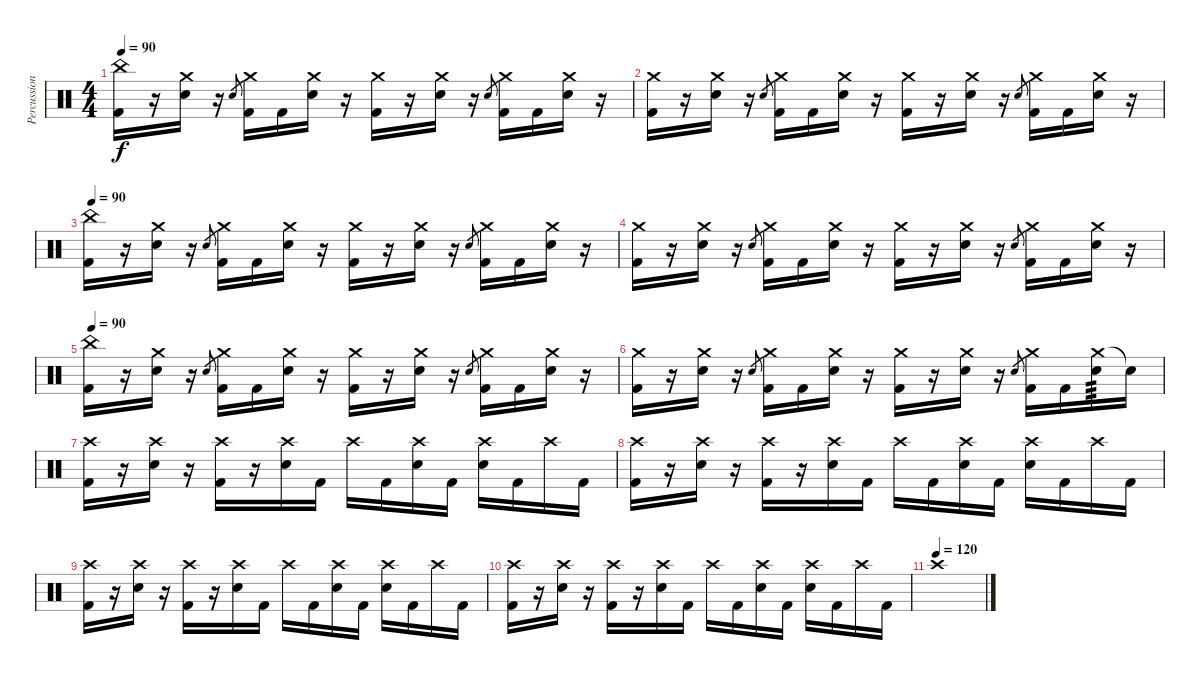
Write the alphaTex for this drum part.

\track ("Percussioni" "Percussion") {instrument percussion}
\staff {score}
\articulation defaults
\ts (4 4)
\tempo 90
\clef neutral
\ks c
("China (hit)" "Kick (hit) 2").16{dy f} r.16 ("Crash medium (hit)" "Snare (hit) 2").16 r.16 "Snare (hit) 2".8{gr} ("Crash medium (hit)" "Kick (hit) 2").16 "Kick (hit) 2".16 ("Crash medium (hit)" "Snare (hit) 2").16 r.16 ("Crash medium (hit)" "Kick (hit) 2").16 r.16 ("Crash medium (hit)" "Snare (hit) 2").16 r.16 "Snare (hit) 2".8{gr} ("Crash medium (hit)" "Kick (hit) 2").16 "Kick (hit) 2".16 ("Crash medium (hit)" "Snare (hit) 2").16 r.16 |
("Crash medium (hit)" "Kick (hit) 2").16 r.16 ("Crash medium (hit)" "Snare (hit) 2").16 r.16 "Snare (hit) 2".8{gr} ("Crash medium (hit)" "Kick (hit) 2").16 "Kick (hit) 2".16 ("Crash medium (hit)" "Snare (hit) 2").16 r.16 ("Crash medium (hit)" "Kick (hit) 2").16 r.16 ("Crash medium (hit)" "Snare (hit) 2").16 r.16 "Snare (hit) 2".8{gr} ("Crash medium (hit)" "Kick (hit) 2").16 "Kick (hit) 2".16 ("Crash medium (hit)" "Snare (hit) 2").16 r.16 |
\tempo 90
("China (hit)" "Kick (hit) 2").16 r.16 ("Crash medium (hit)" "Snare (hit) 2").16 r.16 "Snare (hit) 2".8{gr} ("Crash medium (hit)" "Kick (hit) 2").16 "Kick (hit) 2".16 ("Crash medium (hit)" "Snare (hit) 2").16 r.16 ("Crash medium (hit)" "Kick (hit) 2").16 r.16 ("Crash medium (hit)" "Snare (hit) 2").16 r.16 "Snare (hit) 2".8{gr} ("Crash medium (hit)" "Kick (hit) 2").16 "Kick (hit) 2".16 ("Crash medium (hit)" "Snare (hit) 2").16 r.16 |
("Crash medium (hit)" "Kick (hit) 2").16 r.16 ("Crash medium (hit)" "Snare (hit) 2").16 r.16 "Snare (hit) 2".8{gr} ("Crash medium (hit)" "Kick (hit) 2").16 "Kick (hit) 2".16 ("Crash medium (hit)" "Snare (hit) 2").16 r.16 ("Crash medium (hit)" "Kick (hit) 2").16 r.16 ("Crash medium (hit)" "Snare (hit) 2").16 r.16 "Snare (hit) 2".8{gr} ("Crash medium (hit)" "Kick (hit) 2").16 "Kick (hit) 2".16 ("Crash medium (hit)" "Snare (hit) 2").16 r.16 |
\tempo 90
("China (hit)" "Kick (hit) 2").16 r.16 ("Crash medium (hit)" "Snare (hit) 2").16 r.16 "Snare (hit) 2".8{gr} ("Crash medium (hit)" "Kick (hit) 2").16 "Kick (hit) 2".16 ("Crash medium (hit)" "Snare (hit) 2").16 r.16 ("Crash medium (hit)" "Kick (hit) 2").16 r.16 ("Crash medium (hit)" "Snare (hit) 2").16 r.16 "Snare (hit) 2".8{gr} ("Crash medium (hit)" "Kick (hit) 2").16 "Kick (hit) 2".16 ("Crash medium (hit)" "Snare (hit) 2").16 r.16 |
("Crash medium (hit)" "Kick (hit) 2").16 r.16 ("Crash medium (hit)" "Snare (hit) 2").16 r.16 "Snare (hit) 2".8{gr} ("Crash medium (hit)" "Kick (hit) 2").16 "Kick (hit) 2".16 ("Crash medium (hit)" "Snare (hit) 2").16 r.16 ("Crash medium (hit)" "Kick (hit) 2").16 r.16 ("Crash medium (hit)" "Snare (hit) 2").16 r.16 "Snare (hit) 2".8{gr} ("Crash medium (hit)" "Kick (hit) 2").16 "Kick (hit) 2".16 ("Crash medium (hit)" "Snare (hit) 2").16{tp 3} "Snare (hit)"{t}.16 |
("Crash high (hit)" "Kick (hit) 2").16 r.16 ("Crash high (hit)" "Snare (hit) 2").16 r.16 ("Crash high (hit)" "Kick (hit) 2").16 r.16 ("Crash high (hit)" "Snare (hit) 2").16 "Kick (hit) 2".16 "Crash high (hit)".16 "Kick (hit) 2".16 ("Crash high (hit)" "Snare (hit) 2").16 "Kick (hit) 2".16 ("Crash high (hit)" "Snare (hit) 2").16 "Kick (hit) 2".16 "Crash high (hit)".16 "Kick (hit) 2".16 |
("Crash high (hit)" "Kick (hit) 2").16 r.16 ("Crash high (hit)" "Snare (hit) 2").16 r.16 ("Crash high (hit)" "Kick (hit) 2").16 r.16 ("Crash high (hit)" "Snare (hit) 2").16 "Kick (hit) 2".16 "Crash high (hit)".16 "Kick (hit) 2".16 ("Crash high (hit)" "Snare (hit) 2").16 "Kick (hit) 2".16 ("Crash high (hit)" "Snare (hit) 2").16 "Kick (hit) 2".16 "Crash high (hit)".16 "Kick (hit) 2".16 |
("Crash high (hit)" "Kick (hit) 2").16 r.16 ("Crash high (hit)" "Snare (hit) 2").16 r.16 ("Crash high (hit)" "Kick (hit) 2").16 r.16 ("Crash high (hit)" "Snare (hit) 2").16 "Kick (hit) 2".16 "Crash high (hit)".16 "Kick (hit) 2".16 ("Crash high (hit)" "Snare (hit) 2").16 "Kick (hit) 2".16 ("Crash high (hit)" "Snare (hit) 2").16 "Kick (hit) 2".16 "Crash high (hit)".16 "Kick (hit) 2".16 |
("Crash high (hit)" "Kick (hit) 2").16 r.16 ("Crash high (hit)" "Snare (hit) 2").16 r.16 ("Crash high (hit)" "Kick (hit) 2").16 r.16 ("Crash high (hit)" "Snare (hit) 2").16 "Kick (hit) 2".16 "Crash high (hit)".16 "Kick (hit) 2".16 ("Crash high (hit)" "Snare (hit) 2").16 "Kick (hit) 2".16 ("Crash high (hit)" "Snare (hit) 2").16 "Kick (hit) 2".16 "Crash high (hit)".16 "Kick (hit) 2".16 |
\tempo (120)
"Crash high (hit)".1
